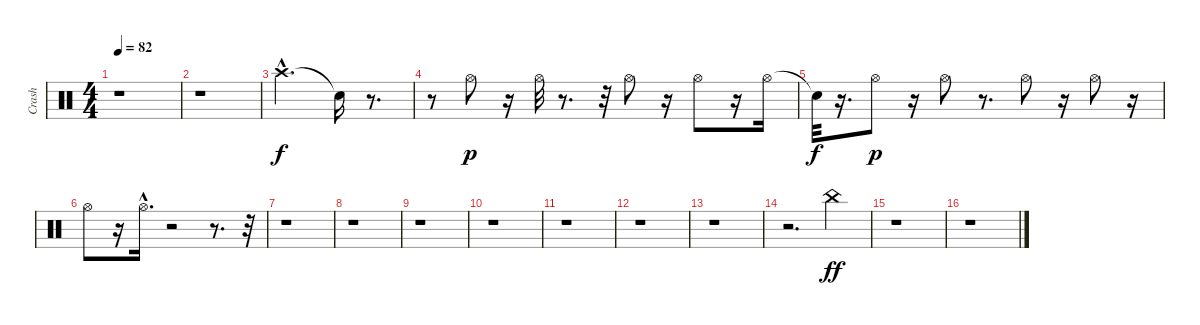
\track ("Crash" "Crash") {instrument percussion}
\staff {score}
\articulation defaults
\ts (4 4)
\tempo 82
\clef neutral
\ks c
r.1{dy f} |
r.1 |
"Crash high (hit)"{hac}.2{d} "Snare (hit)"{t}.16 r.8{d} |
r.8 "Hi-Hat (open)".8{dy p} r.16 "Hi-Hat (open)".32 r.8{d} r.32 "Hi-Hat (open)".8 r.16 "Hi-Hat (open)".8 r.16 "Hi-Hat (open)".16 |
"Snare (hit)"{t}.32{dy f} r.16{d} "Hi-Hat (open)".8{dy p} r.16 "Hi-Hat (open)".8 r.8{d} "Hi-Hat (open)".8 r.16 "Hi-Hat (open)".8 r.16 |
"Hi-Hat (open)".8 r.16 "Hi-Hat (open)"{hac}.16{d} r.2 r.8{d} r.32 |
r.1 |
r.1 |
r.1 |
r.1 |
r.1 |
r.1 |
r.1 |
r.2{d} "China (hit)".4{dy ff} |
r.1 |
r.1
